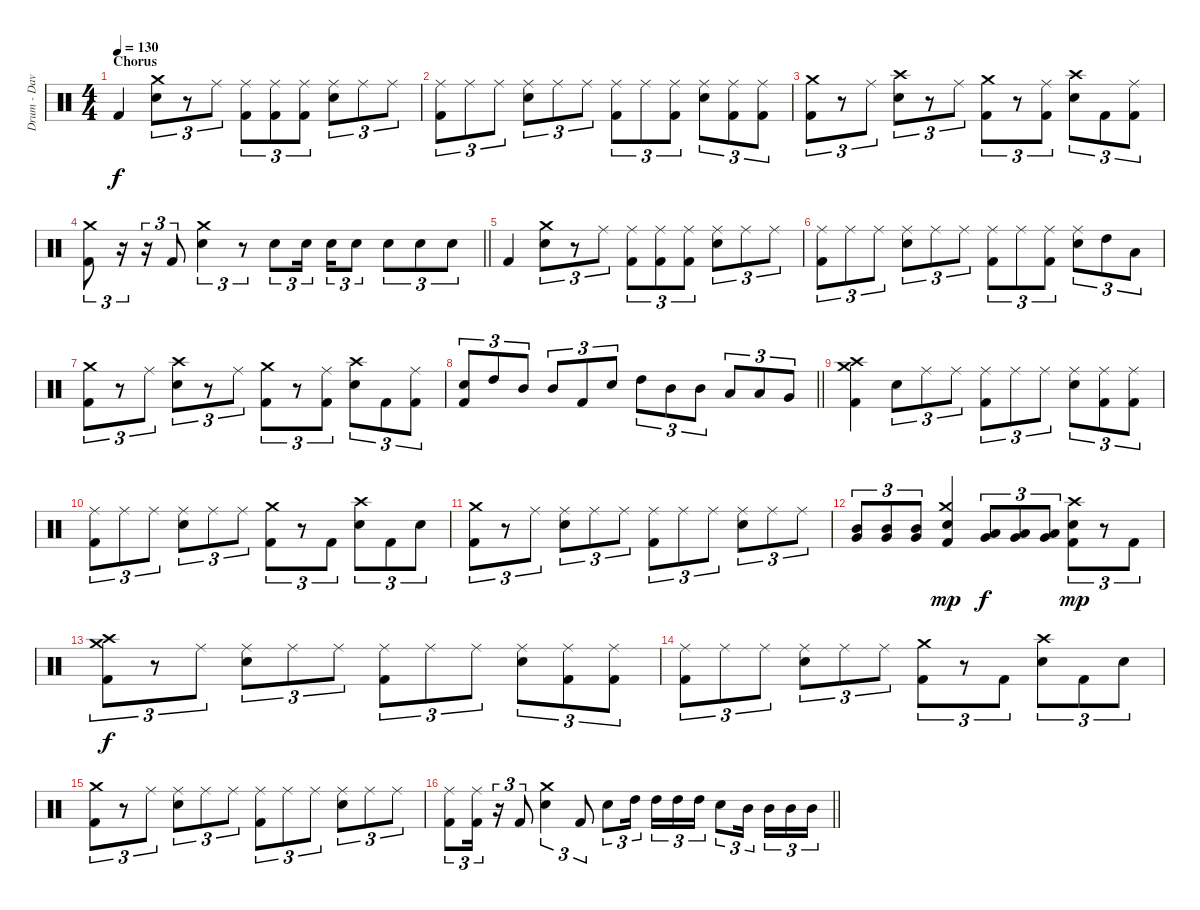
\track ("Drum - Dave Mackintosh" "Drum - Dav") {instrument percussion}
\staff {score}
\articulation defaults
\ts (4 4)
\section ("" "Chorus")
\tempo 130
\clef neutral
\ks c "Kick (hit) 2".4{dy f}
("Crash medium (hit)" "Electric Snare (hit)").8{tu (3 2)} r.8{tu (3 2)} "Ride (middle)".8{tu (3 2)} ("Ride (middle)" "Kick (hit) 2").8{tu (3 2)} ("Ride (middle)" "Kick (hit) 2").8{tu (3 2)} ("Ride (middle)" "Kick (hit) 2").8{tu (3 2)} ("Ride (middle)" "Electric Snare (hit)").8{tu (3 2)} "Ride (middle)".8{tu (3 2)} "Ride (middle)".8{tu (3 2)} |
("Ride (middle)" "Kick (hit) 2").8{tu (3 2)} "Ride (middle)".8{tu (3 2)} "Ride (middle)".8{tu (3 2)} ("Ride (middle)" "Electric Snare (hit)").8{tu (3 2)} "Ride (middle)".8{tu (3 2)} "Ride (middle)".8{tu (3 2)} ("Ride (middle)" "Kick (hit) 2").8{tu (3 2)} "Ride (middle)".8{tu (3 2)} ("Ride (middle)" "Kick (hit) 2").8{tu (3 2)} ("Ride (middle)" "Electric Snare (hit)").8{tu (3 2)} ("Ride (middle)" "Kick (hit) 2").8{tu (3 2)} ("Ride (middle)" "Kick (hit) 2").8{tu (3 2)} |
("Crash medium (hit)" "Kick (hit) 2").8{tu (3 2)} r.8{tu (3 2)} "Ride (middle)".8{tu (3 2)} ("Crash high (hit)" "Electric Snare (hit)").8{tu (3 2)} r.8{tu (3 2)} "Ride (middle)".8{tu (3 2)} ("Crash medium (hit)" "Kick (hit) 2").8{tu (3 2)} r.8{tu (3 2)} ("Ride (middle)" "Kick (hit) 2").8{tu (3 2)} ("Crash high (hit)" "Electric Snare (hit)").8{tu (3 2)} "Kick (hit) 2".8{tu (3 2)} ("Ride (middle)" "Kick (hit) 2").8{tu (3 2)} |
\barLineRight lightlight
("Crash medium (hit)" "Kick (hit) 2").8{tu (3 2)} r.16{tu (3 2)} r.16{tu (3 2)} "Kick (hit) 2".8{tu (3 2)} ("Crash medium (hit)" "Electric Snare (hit)").4{tu (3 2)} r.8{tu (3 2)} "Electric Snare (hit)".8{tu (3 2)} "Electric Snare (hit)".16{tu (3 2) beam splitsecondary} "Electric Snare (hit)".16{tu (3 2)} "Electric Snare (hit)".8{tu (3 2)} "Electric Snare (hit)".8{tu (3 2)} "Electric Snare (hit)".8{tu (3 2)} "Electric Snare (hit)".8{tu (3 2)} |
"Kick (hit) 2".4 ("Crash medium (hit)" "Electric Snare (hit)").8{tu (3 2)} r.8{tu (3 2)} "Ride (middle)".8{tu (3 2)} ("Ride (middle)" "Kick (hit) 2").8{tu (3 2)} ("Ride (middle)" "Kick (hit) 2").8{tu (3 2)} ("Ride (middle)" "Kick (hit) 2").8{tu (3 2)} ("Ride (middle)" "Electric Snare (hit)").8{tu (3 2)} "Ride (middle)".8{tu (3 2)} "Ride (middle)".8{tu (3 2)} |
("Ride (middle)" "Kick (hit) 2").8{tu (3 2)} "Ride (middle)".8{tu (3 2)} "Ride (middle)".8{tu (3 2)} ("Ride (middle)" "Electric Snare (hit)").8{tu (3 2)} "Ride (middle)".8{tu (3 2)} "Ride (middle)".8{tu (3 2)} ("Ride (middle)" "Kick (hit) 2").8{tu (3 2)} "Ride (middle)".8{tu (3 2)} ("Ride (middle)" "Kick (hit) 2").8{tu (3 2)} ("Ride (middle)" "Electric Snare (hit)").8{tu (3 2)} "High Tom (hit)".8{tu (3 2)} "Low Tom (hit)".8{tu (3 2)} |
("Crash medium (hit)" "Kick (hit) 2").8{tu (3 2)} r.8{tu (3 2)} "Ride (middle)".8{tu (3 2)} ("Crash high (hit)" "Electric Snare (hit)").8{tu (3 2)} r.8{tu (3 2)} "Ride (middle)".8{tu (3 2)} ("Crash medium (hit)" "Kick (hit) 2").8{tu (3 2)} r.8{tu (3 2)} ("Ride (middle)" "Kick (hit) 2").8{tu (3 2)} ("Crash high (hit)" "Electric Snare (hit)").8{tu (3 2)} "Kick (hit) 2".8{tu (3 2)} ("Ride (middle)" "Kick (hit) 2").8{tu (3 2)} |
\barLineRight lightlight
("Electric Snare (hit)" "Kick (hit) 2").8{tu (3 2)} "High Tom (hit)".8{tu (3 2)} "Mid Tom (hit)".8{tu (3 2)} "Mid Tom (hit)".8{tu (3 2)} "Kick (hit) 2".8{tu (3 2)} "Electric Snare (hit)".8{tu (3 2)} "High Tom (hit)".8{tu (3 2)} "Mid Tom (hit)".8{tu (3 2)} "Mid Tom (hit)".8{tu (3 2)} "Low Tom (hit)".8{tu (3 2)} "Low Tom (hit)".8{tu (3 2)} "Very Low Tom (hit)".8{tu (3 2)} |
\section ("" "")
("Crash medium (hit)" "Crash high (hit)" "Kick (hit) 2").4 "Electric Snare (hit)".8{tu (3 2)} "Ride (middle)".8{tu (3 2)} "Ride (middle)".8{tu (3 2)} ("Ride (middle)" "Kick (hit) 2").8{tu (3 2)} "Ride (middle)".8{tu (3 2)} "Ride (middle)".8{tu (3 2)} ("Ride (middle)" "Electric Snare (hit)").8{tu (3 2)} ("Ride (middle)" "Kick (hit) 2").8{tu (3 2)} ("Ride (middle)" "Kick (hit) 2").8{tu (3 2)} |
("Ride (middle)" "Kick (hit) 2").8{tu (3 2)} "Ride (middle)".8{tu (3 2)} "Ride (middle)".8{tu (3 2)} ("Ride (middle)" "Electric Snare (hit)").8{tu (3 2)} "Ride (middle)".8{tu (3 2)} "Ride (middle)".8{tu (3 2)} ("Crash medium (hit)" "Kick (hit) 2").8{tu (3 2)} r.8{tu (3 2)} "Kick (hit) 2".8{tu (3 2)} ("Crash high (hit)" "Electric Snare (hit)").8{tu (3 2)} "Kick (hit) 2".8{tu (3 2)} "Electric Snare (hit)".8{tu (3 2)} |
("Crash medium (hit)" "Kick (hit) 2").8{tu (3 2)} r.8{tu (3 2)} "Ride (middle)".8{tu (3 2)} ("Ride (middle)" "Electric Snare (hit)").8{tu (3 2)} "Ride (middle)".8{tu (3 2)} "Ride (middle)".8{tu (3 2)} ("Ride (middle)" "Kick (hit) 2").8{tu (3 2)} "Ride (middle)".8{tu (3 2)} "Ride (middle)".8{tu (3 2)} ("Ride (middle)" "Electric Snare (hit)").8{tu (3 2)} "Ride (middle)".8{tu (3 2)} "Ride (middle)".8{tu (3 2)} |
("Mid Tom (hit)" "Very Low Tom (hit)").8{tu (3 2)} ("Mid Tom (hit)" "Very Low Tom (hit)").8{tu (3 2)} ("Mid Tom (hit)" "Very Low Tom (hit)").8{tu (3 2)} ("Crash medium (hit)" "Electric Snare (hit)" "Kick (hit) 2").4{dy mp} ("Low Tom (hit)" "Very Low Tom (hit)").8{tu (3 2) dy f} ("Low Tom (hit)" "Very Low Tom (hit)").8{tu (3 2)} ("Low Tom (hit)" "Very Low Tom (hit)").8{tu (3 2)} ("Crash high (hit)" "Electric Snare (hit)" "Kick (hit) 2").8{tu (3 2) dy mp} r.8{tu (3 2)} "Kick (hit) 2".8{tu (3 2)} |
("Crash high (hit)" "Crash medium (hit)" "Kick (hit) 2").8{tu (3 2) dy f} r.8{tu (3 2)} "Ride (middle)".8{tu (3 2)} ("Ride (middle)" "Electric Snare (hit)").8{tu (3 2)} "Ride (middle)".8{tu (3 2)} "Ride (middle)".8{tu (3 2)} ("Ride (middle)" "Kick (hit) 2").8{tu (3 2)} "Ride (middle)".8{tu (3 2)} "Ride (middle)".8{tu (3 2)} ("Ride (middle)" "Electric Snare (hit)").8{tu (3 2)} ("Ride (middle)" "Kick (hit) 2").8{tu (3 2)} ("Ride (middle)" "Kick (hit) 2").8{tu (3 2)} |
("Ride (middle)" "Kick (hit) 2").8{tu (3 2)} "Ride (middle)".8{tu (3 2)} "Ride (middle)".8{tu (3 2)} ("Ride (middle)" "Electric Snare (hit)").8{tu (3 2)} "Ride (middle)".8{tu (3 2)} "Ride (middle)".8{tu (3 2)} ("Crash medium (hit)" "Kick (hit) 2").8{tu (3 2)} r.8{tu (3 2)} "Kick (hit) 2".8{tu (3 2)} ("Crash high (hit)" "Electric Snare (hit)").8{tu (3 2)} "Kick (hit) 2".8{tu (3 2)} "Electric Snare (hit)".8{tu (3 2)} |
("Crash medium (hit)" "Kick (hit) 2").8{tu (3 2)} r.8{tu (3 2)} "Ride (middle)".8{tu (3 2)} ("Ride (middle)" "Electric Snare (hit)").8{tu (3 2)} "Ride (middle)".8{tu (3 2)} "Ride (middle)".8{tu (3 2)} ("Ride (middle)" "Kick (hit) 2").8{tu (3 2)} "Ride (middle)".8{tu (3 2)} "Ride (middle)".8{tu (3 2)} ("Ride (middle)" "Electric Snare (hit)").8{tu (3 2)} "Ride (middle)".8{tu (3 2)} "Ride (middle)".8{tu (3 2)} |
\barLineRight lightlight
("Ride (middle)" "Kick (hit) 2").8{tu (3 2)} ("Ride (middle)" "Kick (hit) 2").16{tu (3 2)} r.16{tu (3 2)} "Kick (hit) 2".8{tu (3 2)} ("Crash medium (hit)" "Electric Snare (hit)").4{tu (3 2)} "Kick (hit) 2".8{tu (3 2)} "Electric Snare (hit)".8{tu (3 2)} "High Tom (hit)".16{tu (3 2) beam splitsecondary} "High Tom (hit)".16{tu (3 2)} "High Tom (hit)".16{tu (3 2)} "High Tom (hit)".16{tu (3 2)} "Electric Snare (hit)".8{tu (3 2)} "Mid Tom (hit)".16{tu (3 2) beam splitsecondary} "Mid Tom (hit)".16{tu (3 2)} "Mid Tom (hit)".16{tu (3 2)} "Mid Tom (hit)".16{tu (3 2)}
